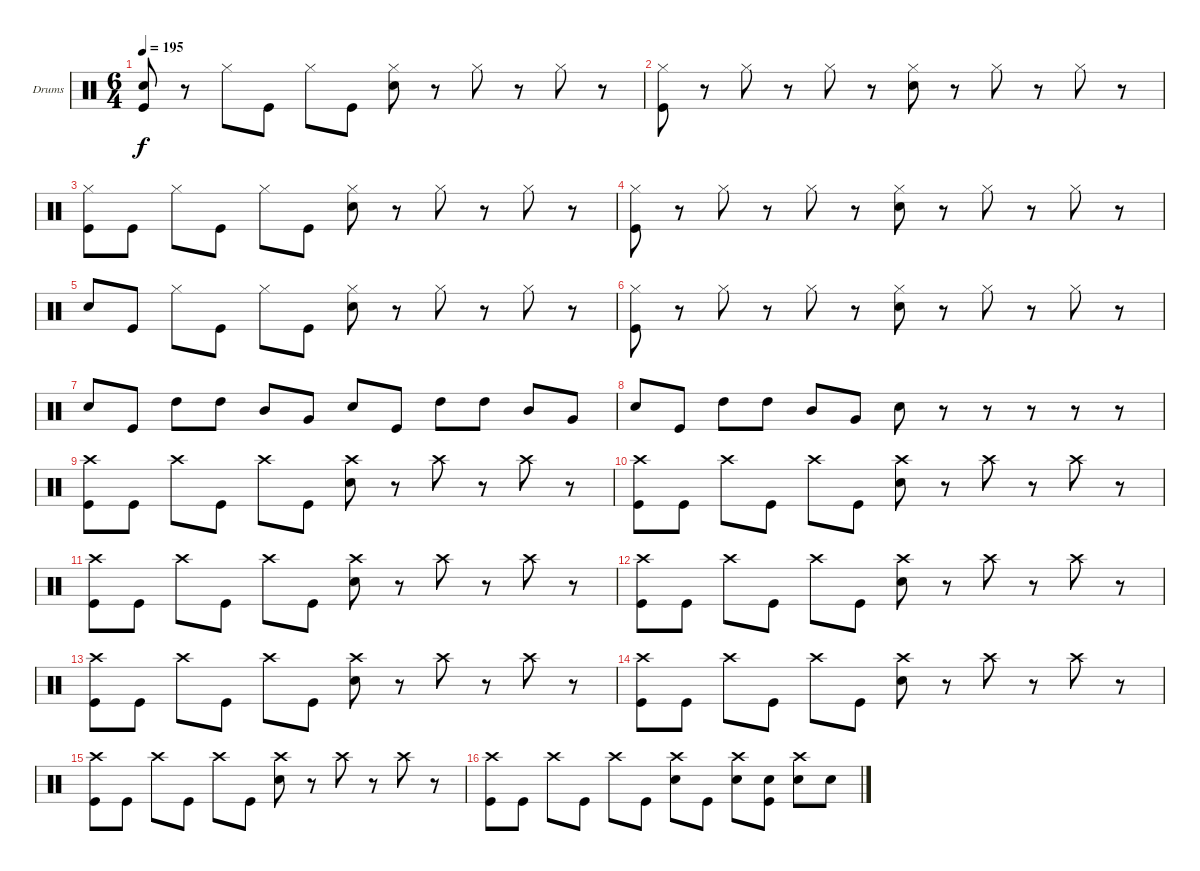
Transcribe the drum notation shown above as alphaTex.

\bracketExtendMode groupsimilarinstruments
\firstSystemTrackNameOrientation horizontal
\otherSystemsTrackNameOrientation horizontal
\track ("Drumkit" "Drums") {instrument percussion}
\staff {score}
\articulation defaults
\ts (6 4)
\tempo 195
\clef neutral
\ks c
("Snare (hit) 2" "Kick (hit)").8{dy f} r.8 "Hi-Hat (closed)".8 "Kick (hit)".8 "Hi-Hat (closed)".8 "Kick (hit)".8 ("Hi-Hat (closed)" "Snare (hit) 2").8 r.8 "Hi-Hat (closed)".8 r.8 "Hi-Hat (closed)".8 r.8 |
("Hi-Hat (closed)" "Kick (hit)").8 r.8 "Hi-Hat (closed)".8 r.8 "Hi-Hat (closed)".8 r.8 ("Hi-Hat (closed)" "Snare (hit) 2").8 r.8 "Hi-Hat (closed)".8 r.8 "Hi-Hat (closed)".8 r.8 |
("Hi-Hat (closed)" "Kick (hit)").8 "Kick (hit)".8 "Hi-Hat (closed)".8 "Kick (hit)".8 "Hi-Hat (closed)".8 "Kick (hit)".8 ("Hi-Hat (closed)" "Snare (hit) 2").8 r.8 "Hi-Hat (closed)".8 r.8 "Hi-Hat (closed)".8 r.8 |
("Hi-Hat (closed)" "Kick (hit)").8 r.8 "Hi-Hat (closed)".8 r.8 "Hi-Hat (closed)".8 r.8 ("Hi-Hat (closed)" "Snare (hit) 2").8 r.8 "Hi-Hat (closed)".8 r.8 "Hi-Hat (closed)".8 r.8 |
"Snare (hit) 2".8 "Kick (hit)".8 "Hi-Hat (closed)".8 "Kick (hit)".8 "Hi-Hat (closed)".8 "Kick (hit)".8 ("Hi-Hat (closed)" "Snare (hit) 2").8 r.8 "Hi-Hat (closed)".8 r.8 "Hi-Hat (closed)".8 r.8 |
("Hi-Hat (closed)" "Kick (hit)").8 r.8 "Hi-Hat (closed)".8 r.8 "Hi-Hat (closed)".8 r.8 ("Hi-Hat (closed)" "Snare (hit) 2").8 r.8 "Hi-Hat (closed)".8 r.8 "Hi-Hat (closed)".8 r.8 |
"Snare (hit) 2".8 "Kick (hit)".8 "High Tom (hit)".8 "High Tom (hit)".8 "Mid Tom (hit)".8 "Very Low Tom (hit)".8 "Snare (hit) 2".8 "Kick (hit)".8 "High Tom (hit)".8 "High Tom (hit)".8 "Mid Tom (hit)".8 "Very Low Tom (hit)".8 |
"Snare (hit) 2".8 "Kick (hit)".8 "High Tom (hit)".8 "High Tom (hit)".8 "Mid Tom (hit)".8 "Very Low Tom (hit)".8 "Snare (hit) 2".8 r.8 r.8 r.8 r.8 r.8 |
("Crash high (hit)" "Kick (hit)").8 "Kick (hit)".8 "Crash high (hit)".8 "Kick (hit)".8 "Crash high (hit)".8 "Kick (hit)".8 ("Crash high (hit)" "Snare (hit) 2").8 r.8 "Crash high (hit)".8 r.8 "Crash high (hit)".8 r.8 |
("Crash high (hit)" "Kick (hit)").8 "Kick (hit)".8 "Crash high (hit)".8 "Kick (hit)".8 "Crash high (hit)".8 "Kick (hit)".8 ("Crash high (hit)" "Snare (hit) 2").8 r.8 "Crash high (hit)".8 r.8 "Crash high (hit)".8 r.8 |
("Crash high (hit)" "Kick (hit)").8 "Kick (hit)".8 "Crash high (hit)".8 "Kick (hit)".8 "Crash high (hit)".8 "Kick (hit)".8 ("Crash high (hit)" "Snare (hit) 2").8 r.8 "Crash high (hit)".8 r.8 "Crash high (hit)".8 r.8 |
("Crash high (hit)" "Kick (hit)").8 "Kick (hit)".8 "Crash high (hit)".8 "Kick (hit)".8 "Crash high (hit)".8 "Kick (hit)".8 ("Crash high (hit)" "Snare (hit) 2").8 r.8 "Crash high (hit)".8 r.8 "Crash high (hit)".8 r.8 |
("Crash high (hit)" "Kick (hit)").8 "Kick (hit)".8 "Crash high (hit)".8 "Kick (hit)".8 "Crash high (hit)".8 "Kick (hit)".8 ("Crash high (hit)" "Snare (hit) 2").8 r.8 "Crash high (hit)".8 r.8 "Crash high (hit)".8 r.8 |
("Crash high (hit)" "Kick (hit)").8 "Kick (hit)".8 "Crash high (hit)".8 "Kick (hit)".8 "Crash high (hit)".8 "Kick (hit)".8 ("Crash high (hit)" "Snare (hit) 2").8 r.8 "Crash high (hit)".8 r.8 "Crash high (hit)".8 r.8 |
("Crash high (hit)" "Kick (hit)").8 "Kick (hit)".8 "Crash high (hit)".8 "Kick (hit)".8 "Crash high (hit)".8 "Kick (hit)".8 ("Crash high (hit)" "Snare (hit) 2").8 r.8 "Crash high (hit)".8 r.8 "Crash high (hit)".8 r.8 |
("Crash high (hit)" "Kick (hit)").8 "Kick (hit)".8 "Crash high (hit)".8 "Kick (hit)".8 "Crash high (hit)".8 "Kick (hit)".8 ("Crash high (hit)" "Snare (hit) 2").8 "Kick (hit)".8 ("Crash high (hit)" "Snare (hit) 2").8 ("Snare (hit) 2" "Kick (hit)").8 ("Crash high (hit)" "Snare (hit) 2").8 "Snare (hit) 2".8
